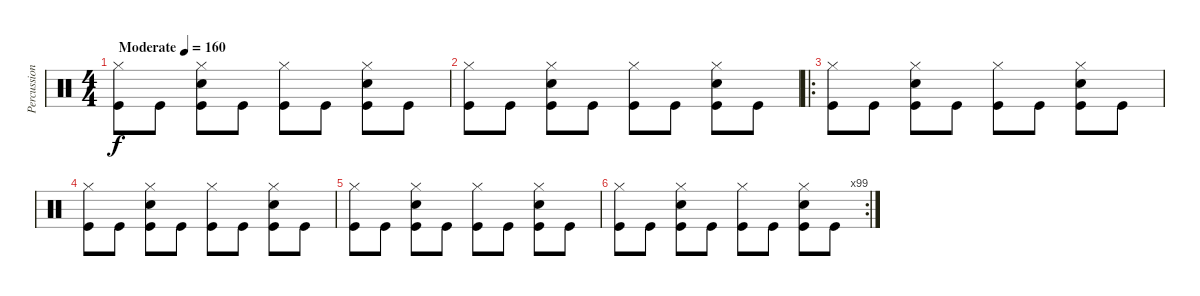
\track ("Percussion" "Percussion") {instrument percussion}
\staff {score}
\articulation defaults
\ts (4 4)
\tempo (160 "Moderate")
\clef neutral
\ks c
("Hi-Hat (closed)" "Kick (hit)").8{dy f} "Kick (hit)".8 ("Hi-Hat (closed)" "Snare (hit) 2" "Kick (hit)").8 "Kick (hit)".8 ("Hi-Hat (closed)" "Kick (hit)").8 "Kick (hit)".8 ("Hi-Hat (closed)" "Snare (hit) 2" "Kick (hit)").8 "Kick (hit)".8 |
("Hi-Hat (closed)" "Kick (hit)").8 "Kick (hit)".8 ("Hi-Hat (closed)" "Snare (hit) 2" "Kick (hit)").8 "Kick (hit)".8 ("Hi-Hat (closed)" "Kick (hit)").8 "Kick (hit)".8 ("Hi-Hat (closed)" "Snare (hit) 2" "Kick (hit)").8 "Kick (hit)".8 |
\ro
("Hi-Hat (closed)" "Kick (hit)").8 "Kick (hit)".8 ("Hi-Hat (closed)" "Snare (hit) 2" "Kick (hit)").8 "Kick (hit)".8 ("Hi-Hat (closed)" "Kick (hit)").8 "Kick (hit)".8 ("Hi-Hat (closed)" "Snare (hit) 2" "Kick (hit)").8 "Kick (hit)".8 |
("Hi-Hat (closed)" "Kick (hit)").8 "Kick (hit)".8 ("Hi-Hat (closed)" "Snare (hit) 2" "Kick (hit)").8 "Kick (hit)".8 ("Hi-Hat (closed)" "Kick (hit)").8 "Kick (hit)".8 ("Hi-Hat (closed)" "Snare (hit) 2" "Kick (hit)").8 "Kick (hit)".8 |
("Hi-Hat (closed)" "Kick (hit)").8 "Kick (hit)".8 ("Hi-Hat (closed)" "Snare (hit) 2" "Kick (hit)").8 "Kick (hit)".8 ("Hi-Hat (closed)" "Kick (hit)").8 "Kick (hit)".8 ("Hi-Hat (closed)" "Snare (hit) 2" "Kick (hit)").8 "Kick (hit)".8 |
\rc 99
("Hi-Hat (closed)" "Kick (hit)").8 "Kick (hit)".8 ("Hi-Hat (closed)" "Snare (hit) 2" "Kick (hit)").8 "Kick (hit)".8 ("Hi-Hat (closed)" "Kick (hit)").8 "Kick (hit)".8 ("Hi-Hat (closed)" "Snare (hit) 2" "Kick (hit)").8 "Kick (hit)".8
